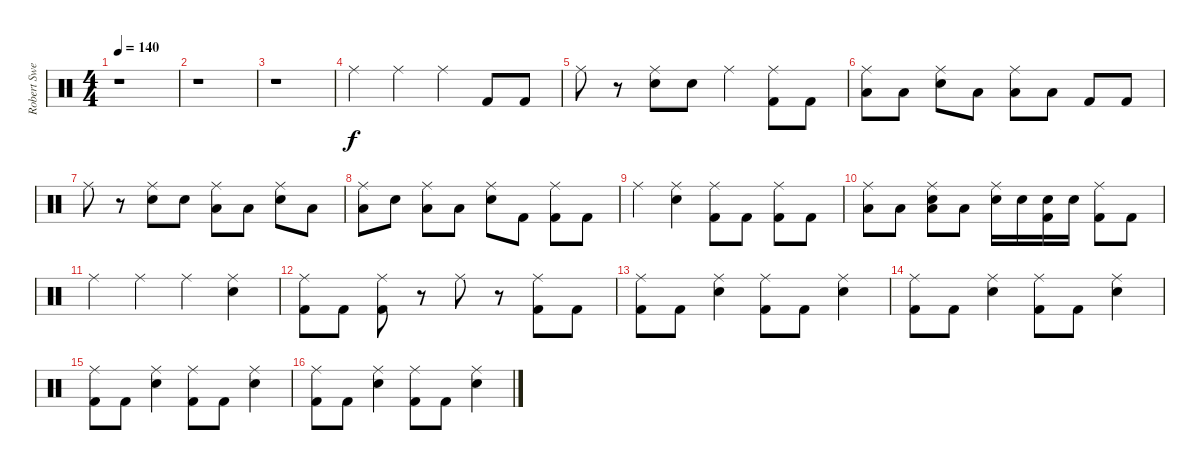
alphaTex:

\track ("Robert Sweet" "Robert Swe") {instrument percussion}
\staff {score}
\articulation defaults
\ts (4 4)
\tempo 140
\clef neutral
\ks c
r.1{dy f} |
r.1 |
r.1 |
"Ride (middle)".4 "Ride (middle)".4 "Ride (middle)".4 "Kick (hit) 2".8 "Kick (hit) 2".8 |
"Ride (middle)".8 r.8 ("Ride (middle)" "Electric Snare (hit)").8 "Electric Snare (hit)".8 "Ride (middle)".4 ("Ride (middle)" "Kick (hit) 2").8 "Kick (hit) 2".8 |
("Ride (middle)" "Low Floor Tom (hit)").8 "Low Floor Tom (hit)".8 ("Ride (middle)" "Electric Snare (hit)").8 "Low Floor Tom (hit)".8 ("Ride (middle)" "Low Floor Tom (hit)").8 "Low Floor Tom (hit)".8 "Kick (hit) 2".8 "Kick (hit) 2".8 |
"Ride (middle)".8 r.8 ("Ride (middle)" "Electric Snare (hit)").8 "Electric Snare (hit)".8 ("Ride (middle)" "Low Floor Tom (hit)").8 "Low Floor Tom (hit)".8 ("Ride (middle)" "Electric Snare (hit)").8 "Low Floor Tom (hit)".8 |
("Ride (middle)" "Low Floor Tom (hit)").8 "Electric Snare (hit)".8 ("Ride (middle)" "Low Floor Tom (hit)").8 "Low Floor Tom (hit)".8 ("Ride (middle)" "Electric Snare (hit)").8 "Kick (hit) 2".8 ("Ride (middle)" "Kick (hit) 2").8 "Kick (hit) 2".8 |
"Ride (middle)".4 ("Ride (middle)" "Electric Snare (hit)").4 ("Ride (middle)" "Kick (hit) 2").8 "Kick (hit) 2".8 ("Ride (middle)" "Kick (hit) 2").8 "Kick (hit) 2".8 |
("Ride (middle)" "Low Floor Tom (hit)").8 "Low Floor Tom (hit)".8 ("Ride (middle)" "Low Floor Tom (hit)" "Electric Snare (hit)").8 "Low Floor Tom (hit)".8 ("Ride (middle)" "Electric Snare (hit)").16 "Electric Snare (hit)".16 ("Kick (hit) 2" "Electric Snare (hit)").16 "Electric Snare (hit)".16 ("Ride (middle)" "Kick (hit) 2").8 "Kick (hit) 2".8 |
"Ride (middle)".4 "Ride (middle)".4 "Ride (middle)".4 ("Ride (middle)" "Electric Snare (hit)").4 |
("Ride (middle)" "Kick (hit) 2").8 "Kick (hit) 2".8 ("Ride (middle)" "Kick (hit) 2").8 r.8 "Ride (middle)".8 r.8 ("Ride (middle)" "Kick (hit) 2").8 "Kick (hit) 2".8 |
("Kick (hit) 2" "Ride (middle)").8 "Kick (hit) 2".8 ("Electric Snare (hit)" "Ride (middle)").4 ("Kick (hit) 2" "Ride (middle)").8 "Kick (hit) 2".8 ("Electric Snare (hit)" "Ride (middle)").4 |
("Kick (hit) 2" "Ride (middle)").8 "Kick (hit) 2".8 ("Electric Snare (hit)" "Ride (middle)").4 ("Kick (hit) 2" "Ride (middle)").8 "Kick (hit) 2".8 ("Electric Snare (hit)" "Ride (middle)").4 |
("Kick (hit) 2" "Ride (middle)").8 "Kick (hit) 2".8 ("Electric Snare (hit)" "Ride (middle)").4 ("Kick (hit) 2" "Ride (middle)").8 "Kick (hit) 2".8 ("Electric Snare (hit)" "Ride (middle)").4 |
("Kick (hit) 2" "Ride (middle)").8 "Kick (hit) 2".8 ("Electric Snare (hit)" "Ride (middle)").4 ("Kick (hit) 2" "Ride (middle)").8 "Kick (hit) 2".8 ("Electric Snare (hit)" "Ride (middle)").4
